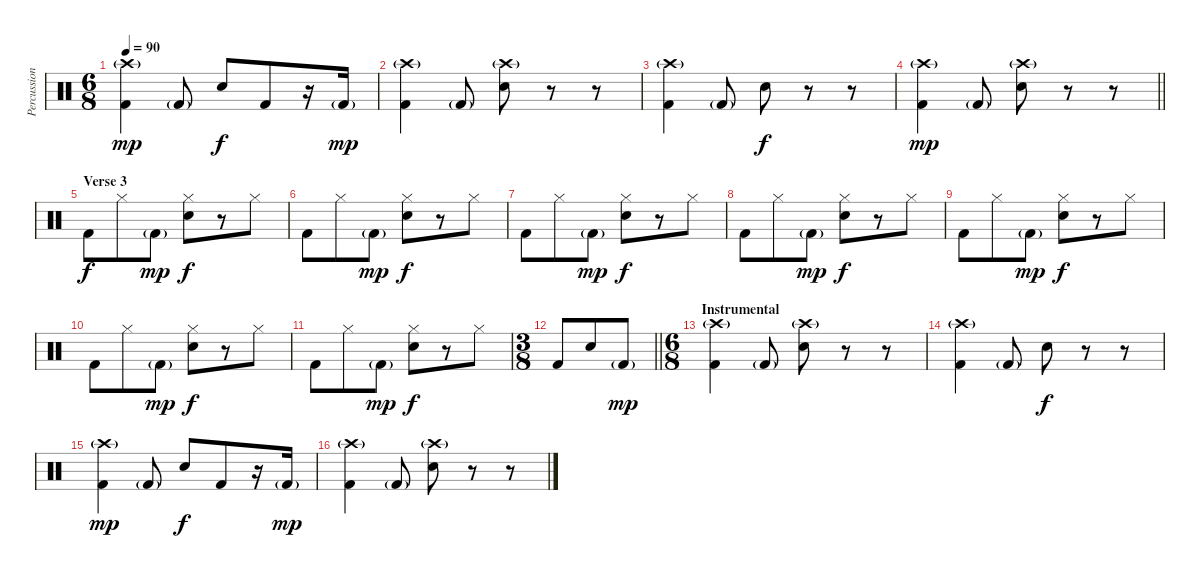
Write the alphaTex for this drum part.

\track ("Percussion" "Percussion") {instrument percussion}
\staff {score}
\articulation defaults
\ts (6 8)
\tempo 90
\clef neutral
\ks c
("Crash high (hit)"{g} "Kick (hit) 2").4{dy mp} "Kick (hit) 2"{g}.8 "Snare (hit) 2".8{dy f} "Kick (hit) 2".8 r.16 "Kick (hit) 2"{g}.16{dy mp} |
("Crash high (hit)"{g} "Kick (hit) 2").4 "Kick (hit) 2"{g}.8 ("Crash high (hit)"{g} "Snare (hit) 2").8 r.8 r.8 |
("Crash high (hit)"{g} "Kick (hit) 2").4 "Kick (hit) 2"{g}.8 "Snare (hit) 2".8{dy f} r.8 r.8 |
\barLineRight lightlight
("Crash high (hit)"{g} "Kick (hit) 2").4{dy mp} "Kick (hit) 2"{g}.8 ("Crash high (hit)"{g} "Snare (hit) 2").8 r.8 r.8 |
\section ("" "Verse 3")
"Kick (hit) 2".8{dy f} "Hi-Hat (closed)".8 "Kick (hit) 2"{g}.8{dy mp} ("Hi-Hat (closed)" "Snare (hit) 2").8{dy f} r.8 "Hi-Hat (closed)".8 |
"Kick (hit) 2".8 "Hi-Hat (closed)".8 "Kick (hit) 2"{g}.8{dy mp} ("Hi-Hat (closed)" "Snare (hit) 2").8{dy f} r.8 "Hi-Hat (closed)".8 |
"Kick (hit) 2".8 "Hi-Hat (closed)".8 "Kick (hit) 2"{g}.8{dy mp} ("Hi-Hat (closed)" "Snare (hit) 2").8{dy f} r.8 "Hi-Hat (closed)".8 |
"Kick (hit) 2".8 "Hi-Hat (closed)".8 "Kick (hit) 2"{g}.8{dy mp} ("Hi-Hat (closed)" "Snare (hit) 2").8{dy f} r.8 "Hi-Hat (closed)".8 |
"Kick (hit) 2".8 "Hi-Hat (closed)".8 "Kick (hit) 2"{g}.8{dy mp} ("Hi-Hat (closed)" "Snare (hit) 2").8{dy f} r.8 "Hi-Hat (closed)".8 |
"Kick (hit) 2".8 "Hi-Hat (closed)".8 "Kick (hit) 2"{g}.8{dy mp} ("Hi-Hat (closed)" "Snare (hit) 2").8{dy f} r.8 "Hi-Hat (closed)".8 |
"Kick (hit) 2".8 "Hi-Hat (closed)".8 "Kick (hit) 2"{g}.8{dy mp} ("Hi-Hat (closed)" "Snare (hit) 2").8{dy f} r.8 "Hi-Hat (closed)".8 |
\ts (3 8)
\barLineRight lightlight "Kick (hit) 2".8 "Snare (hit) 2".8 "Kick (hit) 2"{g}.8{dy mp}
|
\ts (6 8)
\section ("" "Instrumental")
("Crash high (hit)"{g} "Kick (hit) 2").4 "Kick (hit) 2"{g}.8 ("Crash high (hit)"{g} "Snare (hit) 2").8 r.8 r.8 |
("Crash high (hit)"{g} "Kick (hit) 2").4 "Kick (hit) 2"{g}.8 "Snare (hit) 2".8{dy f} r.8 r.8 |
("Crash high (hit)"{g} "Kick (hit) 2").4{dy mp} "Kick (hit) 2"{g}.8 "Snare (hit) 2".8{dy f} "Kick (hit) 2".8 r.16 "Kick (hit) 2"{g}.16{dy mp} |
("Crash high (hit)"{g} "Kick (hit) 2").4 "Kick (hit) 2"{g}.8 ("Crash high (hit)"{g} "Snare (hit) 2").8 r.8 r.8
